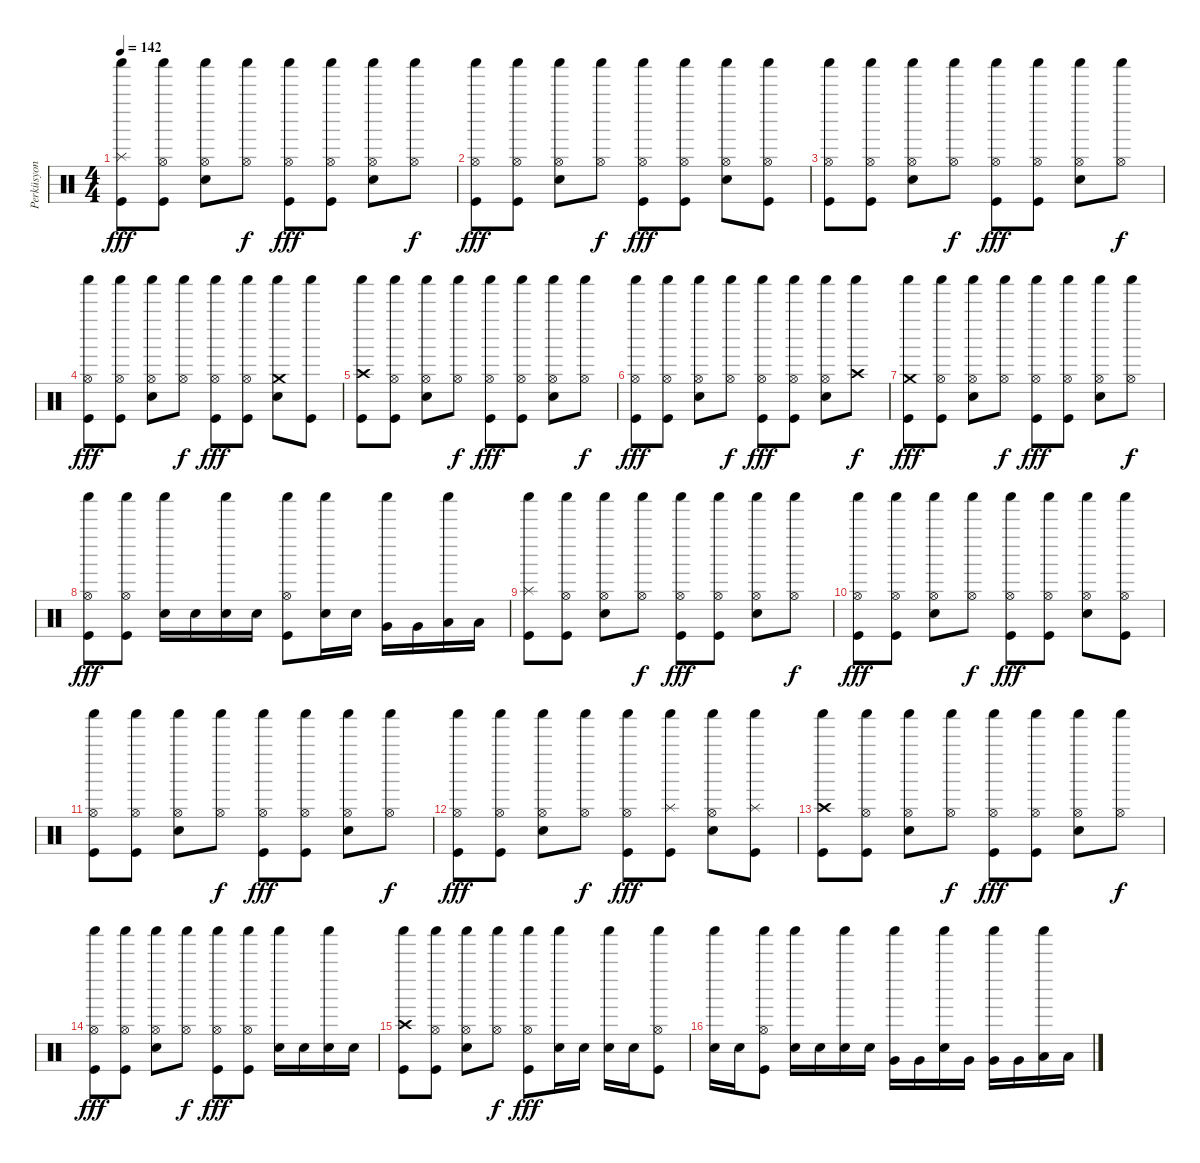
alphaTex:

\track ("Perküsyon" "Perküsyon") {instrument percussion}
\staff {score}
\articulation defaults
\ts (4 4)
\tempo 142
\clef neutral
\ks c
("Kick (hit)" "Splash (hit)" "Shaker (hit)").8{dy fff} ("Kick (hit)" "Hi-Hat (open)" "Shaker (hit)").8 ("Snare (hit) 2" "Hi-Hat (open)" "Shaker (hit)").8 ("Hi-Hat (open)" "Shaker (hit)").8{dy f} ("Kick (hit)" "Hi-Hat (open)" "Shaker (hit)").8{dy fff} ("Kick (hit)" "Hi-Hat (open)" "Shaker (hit)").8 ("Snare (hit) 2" "Hi-Hat (open)" "Shaker (hit)").8 ("Hi-Hat (open)" "Shaker (hit)").8{dy f} |
("Kick (hit)" "Hi-Hat (open)" "Shaker (hit)").8{dy fff} ("Kick (hit)" "Hi-Hat (open)" "Shaker (hit)").8 ("Snare (hit) 2" "Hi-Hat (open)" "Shaker (hit)").8 ("Hi-Hat (open)" "Shaker (hit)").8{dy f} ("Kick (hit)" "Hi-Hat (open)" "Shaker (hit)").8{dy fff} ("Kick (hit)" "Hi-Hat (open)" "Shaker (hit)").8 ("Snare (hit) 2" "Hi-Hat (open)" "Shaker (hit)").8 ("Kick (hit)" "Hi-Hat (open)" "Shaker (hit)").8 |
("Kick (hit)" "Hi-Hat (open)" "Shaker (hit)").8 ("Kick (hit)" "Hi-Hat (open)" "Shaker (hit)").8 ("Snare (hit) 2" "Hi-Hat (open)" "Shaker (hit)").8 ("Hi-Hat (open)" "Shaker (hit)").8{dy f} ("Kick (hit)" "Hi-Hat (open)" "Shaker (hit)").8{dy fff} ("Kick (hit)" "Hi-Hat (open)" "Shaker (hit)").8 ("Snare (hit) 2" "Hi-Hat (open)" "Shaker (hit)").8 ("Hi-Hat (open)" "Shaker (hit)").8{dy f} |
("Kick (hit)" "Hi-Hat (open)" "Shaker (hit)").8{dy fff} ("Kick (hit)" "Hi-Hat (open)" "Shaker (hit)").8 ("Snare (hit) 2" "Hi-Hat (open)" "Shaker (hit)").8 ("Hi-Hat (open)" "Shaker (hit)").8{dy f} ("Kick (hit)" "Hi-Hat (open)" "Shaker (hit)").8{dy fff} ("Kick (hit)" "Hi-Hat (open)" "Shaker (hit)").8 ("Snare (hit) 2" "Crash medium (hit)" "Shaker (hit)").8 ("Kick (hit)" "Shaker (hit)").8 |
("Kick (hit)" "Crash high (hit)" "Shaker (hit)").8 ("Kick (hit)" "Hi-Hat (open)" "Shaker (hit)").8 ("Snare (hit) 2" "Hi-Hat (open)" "Shaker (hit)").8 ("Hi-Hat (open)" "Shaker (hit)").8{dy f} ("Kick (hit)" "Hi-Hat (open)" "Shaker (hit)").8{dy fff} ("Kick (hit)" "Hi-Hat (open)" "Shaker (hit)").8 ("Snare (hit) 2" "Hi-Hat (open)" "Shaker (hit)").8 ("Hi-Hat (open)" "Shaker (hit)").8{dy f} |
("Kick (hit)" "Hi-Hat (open)" "Shaker (hit)").8{dy fff} ("Kick (hit)" "Hi-Hat (open)" "Shaker (hit)").8 ("Snare (hit) 2" "Hi-Hat (open)" "Shaker (hit)").8 ("Hi-Hat (open)" "Shaker (hit)").8{dy f} ("Kick (hit)" "Hi-Hat (open)" "Shaker (hit)").8{dy fff} ("Kick (hit)" "Hi-Hat (open)" "Shaker (hit)").8 ("Snare (hit) 2" "Hi-Hat (open)" "Shaker (hit)").8 ("Crash high (hit)" "Shaker (hit)").8{dy f} |
("Kick (hit)" "Crash medium (hit)" "Shaker (hit)").8{dy fff} ("Kick (hit)" "Hi-Hat (open)" "Shaker (hit)").8 ("Snare (hit) 2" "Hi-Hat (open)" "Shaker (hit)").8 ("Hi-Hat (open)" "Shaker (hit)").8{dy f} ("Kick (hit)" "Hi-Hat (open)" "Shaker (hit)").8{dy fff} ("Kick (hit)" "Hi-Hat (open)" "Shaker (hit)").8 ("Snare (hit) 2" "Hi-Hat (open)" "Shaker (hit)").8 ("Hi-Hat (open)" "Shaker (hit)").8{dy f} |
("Kick (hit)" "Hi-Hat (open)" "Shaker (hit)").8{dy fff} ("Kick (hit)" "Hi-Hat (open)" "Shaker (hit)").8 ("Snare (hit) 2" "Shaker (hit)").16 "Snare (hit) 2".16 ("Snare (hit) 2" "Shaker (hit)").16 "Snare (hit) 2".16 ("Kick (hit)" "Hi-Hat (open)" "Shaker (hit)").8 ("Snare (hit) 2" "Shaker (hit)").16 "Snare (hit) 2".16 ("Very Low Tom (hit)" "Shaker (hit)").16 "Very Low Tom (hit)".16 ("Low Floor Tom (hit)" "Shaker (hit)").16 "Low Floor Tom (hit)".16 |
("Kick (hit)" "Splash (hit)" "Shaker (hit)").8 ("Kick (hit)" "Hi-Hat (open)" "Shaker (hit)").8 ("Snare (hit) 2" "Hi-Hat (open)" "Shaker (hit)").8 ("Hi-Hat (open)" "Shaker (hit)").8{dy f} ("Kick (hit)" "Hi-Hat (open)" "Shaker (hit)").8{dy fff} ("Kick (hit)" "Hi-Hat (open)" "Shaker (hit)").8 ("Snare (hit) 2" "Hi-Hat (open)" "Shaker (hit)").8 ("Hi-Hat (open)" "Shaker (hit)").8{dy f} |
("Kick (hit)" "Hi-Hat (open)" "Shaker (hit)").8{dy fff} ("Kick (hit)" "Hi-Hat (open)" "Shaker (hit)").8 ("Snare (hit) 2" "Hi-Hat (open)" "Shaker (hit)").8 ("Hi-Hat (open)" "Shaker (hit)").8{dy f} ("Kick (hit)" "Hi-Hat (open)" "Shaker (hit)").8{dy fff} ("Kick (hit)" "Hi-Hat (open)" "Shaker (hit)").8 ("Snare (hit) 2" "Hi-Hat (open)" "Shaker (hit)").8 ("Kick (hit)" "Hi-Hat (open)" "Shaker (hit)").8 |
("Kick (hit)" "Hi-Hat (open)" "Shaker (hit)").8 ("Kick (hit)" "Hi-Hat (open)" "Shaker (hit)").8 ("Snare (hit) 2" "Hi-Hat (open)" "Shaker (hit)").8 ("Hi-Hat (open)" "Shaker (hit)").8{dy f} ("Kick (hit)" "Hi-Hat (open)" "Shaker (hit)").8{dy fff} ("Kick (hit)" "Hi-Hat (open)" "Shaker (hit)").8 ("Snare (hit) 2" "Hi-Hat (open)" "Shaker (hit)").8 ("Hi-Hat (open)" "Shaker (hit)").8{dy f} |
("Kick (hit)" "Hi-Hat (open)" "Shaker (hit)").8{dy fff} ("Kick (hit)" "Hi-Hat (open)" "Shaker (hit)").8 ("Snare (hit) 2" "Hi-Hat (open)" "Shaker (hit)").8 ("Hi-Hat (open)" "Shaker (hit)").8{dy f} ("Kick (hit)" "Hi-Hat (open)" "Shaker (hit)").8{dy fff} ("Kick (hit)" "Splash (hit)" "Shaker (hit)").8 ("Snare (hit) 2" "Hi-Hat (open)" "Shaker (hit)").8 ("Kick (hit)" "Splash (hit)" "Shaker (hit)").8 |
("Kick (hit)" "Crash high (hit)" "Shaker (hit)").8 ("Kick (hit)" "Hi-Hat (open)" "Shaker (hit)").8 ("Snare (hit) 2" "Hi-Hat (open)" "Shaker (hit)").8 ("Hi-Hat (open)" "Shaker (hit)").8{dy f} ("Kick (hit)" "Hi-Hat (open)" "Shaker (hit)").8{dy fff} ("Kick (hit)" "Hi-Hat (open)" "Shaker (hit)").8 ("Snare (hit) 2" "Hi-Hat (open)" "Shaker (hit)").8 ("Hi-Hat (open)" "Shaker (hit)").8{dy f} |
("Kick (hit)" "Hi-Hat (open)" "Shaker (hit)").8{dy fff} ("Kick (hit)" "Hi-Hat (open)" "Shaker (hit)").8 ("Snare (hit) 2" "Hi-Hat (open)" "Shaker (hit)").8 ("Hi-Hat (open)" "Shaker (hit)").8{dy f} ("Kick (hit)" "Hi-Hat (open)" "Shaker (hit)").8{dy fff} ("Kick (hit)" "Hi-Hat (open)" "Shaker (hit)").8 ("Snare (hit) 2" "Shaker (hit)").16 "Snare (hit) 2".16 ("Snare (hit) 2" "Shaker (hit)").16 "Snare (hit) 2".16 |
("Kick (hit)" "Crash high (hit)" "Shaker (hit)").8 ("Kick (hit)" "Hi-Hat (open)" "Shaker (hit)").8 ("Snare (hit) 2" "Hi-Hat (open)" "Shaker (hit)").8 ("Hi-Hat (open)" "Shaker (hit)").8{dy f} ("Kick (hit)" "Hi-Hat (open)" "Shaker (hit)").8{dy fff} ("Snare (hit) 2" "Shaker (hit)").16 "Snare (hit) 2".16 ("Snare (hit) 2" "Shaker (hit)").16 "Snare (hit) 2".16 ("Kick (hit)" "Hi-Hat (open)" "Shaker (hit)").8 |
("Snare (hit) 2" "Shaker (hit)").16 "Snare (hit) 2".16 ("Kick (hit)" "Hi-Hat (open)" "Shaker (hit)").8 ("Snare (hit) 2" "Shaker (hit)").16 "Snare (hit) 2".16 ("Snare (hit) 2" "Shaker (hit)").16 "Snare (hit) 2".16 ("Very Low Tom (hit)" "Shaker (hit)").16 "Very Low Tom (hit)".16 ("Snare (hit) 2" "Shaker (hit)").16 "Very Low Tom (hit)".16 ("Very Low Tom (hit)" "Shaker (hit)").16 "Very Low Tom (hit)".16 ("Low Floor Tom (hit)" "Shaker (hit)").16 "Low Floor Tom (hit)".16
